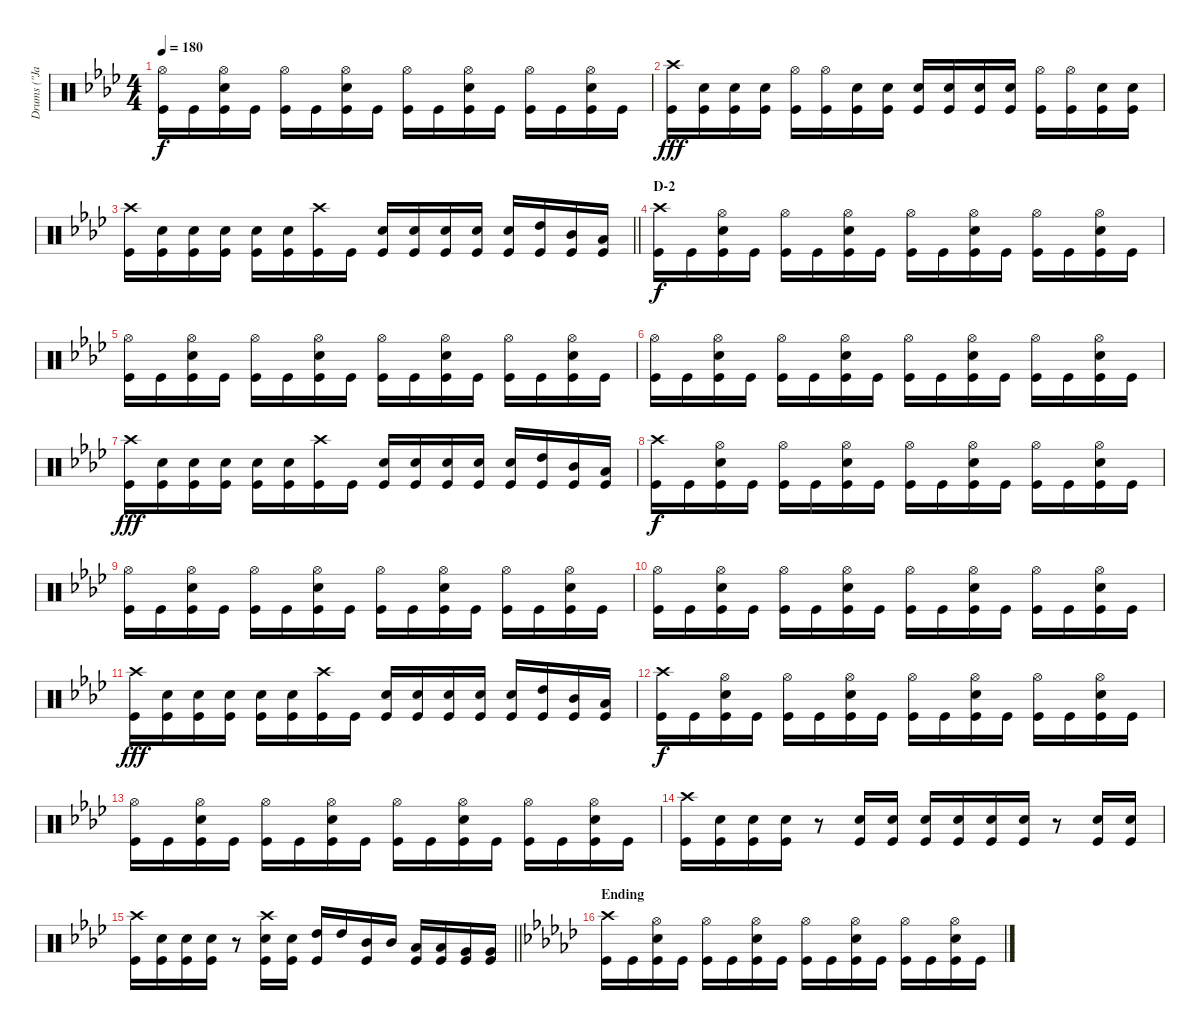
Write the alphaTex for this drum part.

\track ("Drums (\"Jane\")" "Drums (\"Ja") {instrument percussion}
\staff {score}
\articulation defaults
\ts (4 4)
\tempo 180
\clef neutral
\ks ab
("Hi-Hat (open)" "Kick (hit)").16{dy f} "Kick (hit)".16 ("Hi-Hat (open)" "Snare (hit) 2" "Kick (hit)").16 "Kick (hit)".16 ("Hi-Hat (open)" "Kick (hit)").16 "Kick (hit)".16 ("Hi-Hat (open)" "Snare (hit) 2" "Kick (hit)").16 "Kick (hit)".16 ("Hi-Hat (open)" "Kick (hit)").16 "Kick (hit)".16 ("Hi-Hat (open)" "Snare (hit) 2" "Kick (hit)").16 "Kick (hit)".16 ("Hi-Hat (open)" "Kick (hit)").16 "Kick (hit)".16 ("Hi-Hat (open)" "Snare (hit) 2" "Kick (hit)").16 "Kick (hit)".16 |
("Crash high (hit)" "Kick (hit)").16{dy fff} ("Snare (hit) 2" "Kick (hit)").16 ("Snare (hit) 2" "Kick (hit)").16 ("Snare (hit) 2" "Kick (hit)").16 ("Hi-Hat (open)" "Kick (hit)").16 ("Hi-Hat (open)" "Kick (hit)").16 ("Snare (hit) 2" "Kick (hit)").16 ("Snare (hit) 2" "Kick (hit)").16 ("Snare (hit) 2" "Kick (hit)").16 ("Snare (hit) 2" "Kick (hit)").16 ("Snare (hit) 2" "Kick (hit)").16 ("Snare (hit) 2" "Kick (hit)").16 ("Hi-Hat (open)" "Kick (hit)").16 ("Hi-Hat (open)" "Kick (hit)").16 ("Snare (hit) 2" "Kick (hit)").16 ("Snare (hit) 2" "Kick (hit)").16 |
\barLineRight lightlight
("Crash high (hit)" "Kick (hit)").16 ("Snare (hit) 2" "Kick (hit)").16 ("Snare (hit) 2" "Kick (hit)").16 ("Snare (hit) 2" "Kick (hit)").16 ("Snare (hit) 2" "Kick (hit)").16 ("Snare (hit) 2" "Kick (hit)").16 ("Crash high (hit)" "Kick (hit)").16 "Kick (hit)".16 ("Snare (hit) 2" "Kick (hit)").16 ("Snare (hit) 2" "Kick (hit)").16 ("Snare (hit) 2" "Kick (hit)").16 ("Snare (hit) 2" "Kick (hit)").16 ("Snare (hit) 2" "Kick (hit)").16 ("High Tom (hit)" "Kick (hit)").16 ("Mid Tom (hit)" "Kick (hit)").16 ("Low Tom (hit)" "Kick (hit)").16 |
\section ("" "D-2")
("Crash high (hit)" "Kick (hit)").16{dy f} "Kick (hit)".16 ("Hi-Hat (open)" "Snare (hit) 2" "Kick (hit)").16 "Kick (hit)".16 ("Hi-Hat (open)" "Kick (hit)").16 "Kick (hit)".16 ("Hi-Hat (open)" "Snare (hit) 2" "Kick (hit)").16 "Kick (hit)".16 ("Hi-Hat (open)" "Kick (hit)").16 "Kick (hit)".16 ("Hi-Hat (open)" "Snare (hit) 2" "Kick (hit)").16 "Kick (hit)".16 ("Hi-Hat (open)" "Kick (hit)").16 "Kick (hit)".16 ("Hi-Hat (open)" "Snare (hit) 2" "Kick (hit)").16 "Kick (hit)".16 |
("Hi-Hat (open)" "Kick (hit)").16 "Kick (hit)".16 ("Hi-Hat (open)" "Snare (hit) 2" "Kick (hit)").16 "Kick (hit)".16 ("Hi-Hat (open)" "Kick (hit)").16 "Kick (hit)".16 ("Hi-Hat (open)" "Snare (hit) 2" "Kick (hit)").16 "Kick (hit)".16 ("Hi-Hat (open)" "Kick (hit)").16 "Kick (hit)".16 ("Hi-Hat (open)" "Snare (hit) 2" "Kick (hit)").16 "Kick (hit)".16 ("Hi-Hat (open)" "Kick (hit)").16 "Kick (hit)".16 ("Hi-Hat (open)" "Snare (hit) 2" "Kick (hit)").16 "Kick (hit)".16 |
("Hi-Hat (open)" "Kick (hit)").16 "Kick (hit)".16 ("Hi-Hat (open)" "Snare (hit) 2" "Kick (hit)").16 "Kick (hit)".16 ("Hi-Hat (open)" "Kick (hit)").16 "Kick (hit)".16 ("Hi-Hat (open)" "Snare (hit) 2" "Kick (hit)").16 "Kick (hit)".16 ("Hi-Hat (open)" "Kick (hit)").16 "Kick (hit)".16 ("Hi-Hat (open)" "Snare (hit) 2" "Kick (hit)").16 "Kick (hit)".16 ("Hi-Hat (open)" "Kick (hit)").16 "Kick (hit)".16 ("Hi-Hat (open)" "Snare (hit) 2" "Kick (hit)").16 "Kick (hit)".16 |
("Crash high (hit)" "Kick (hit)").16{dy fff} ("Snare (hit) 2" "Kick (hit)").16 ("Snare (hit) 2" "Kick (hit)").16 ("Snare (hit) 2" "Kick (hit)").16 ("Snare (hit) 2" "Kick (hit)").16 ("Snare (hit) 2" "Kick (hit)").16 ("Crash high (hit)" "Kick (hit)").16 "Kick (hit)".16 ("Snare (hit) 2" "Kick (hit)").16 ("Snare (hit) 2" "Kick (hit)").16 ("Snare (hit) 2" "Kick (hit)").16 ("Snare (hit) 2" "Kick (hit)").16 ("Snare (hit) 2" "Kick (hit)").16 ("High Tom (hit)" "Kick (hit)").16 ("Mid Tom (hit)" "Kick (hit)").16 ("Low Tom (hit)" "Kick (hit)").16 |
("Crash high (hit)" "Kick (hit)").16{dy f} "Kick (hit)".16 ("Hi-Hat (open)" "Snare (hit) 2" "Kick (hit)").16 "Kick (hit)".16 ("Hi-Hat (open)" "Kick (hit)").16 "Kick (hit)".16 ("Hi-Hat (open)" "Snare (hit) 2" "Kick (hit)").16 "Kick (hit)".16 ("Hi-Hat (open)" "Kick (hit)").16 "Kick (hit)".16 ("Hi-Hat (open)" "Snare (hit) 2" "Kick (hit)").16 "Kick (hit)".16 ("Hi-Hat (open)" "Kick (hit)").16 "Kick (hit)".16 ("Hi-Hat (open)" "Snare (hit) 2" "Kick (hit)").16 "Kick (hit)".16 |
("Hi-Hat (open)" "Kick (hit)").16 "Kick (hit)".16 ("Hi-Hat (open)" "Snare (hit) 2" "Kick (hit)").16 "Kick (hit)".16 ("Hi-Hat (open)" "Kick (hit)").16 "Kick (hit)".16 ("Hi-Hat (open)" "Snare (hit) 2" "Kick (hit)").16 "Kick (hit)".16 ("Hi-Hat (open)" "Kick (hit)").16 "Kick (hit)".16 ("Hi-Hat (open)" "Snare (hit) 2" "Kick (hit)").16 "Kick (hit)".16 ("Hi-Hat (open)" "Kick (hit)").16 "Kick (hit)".16 ("Hi-Hat (open)" "Snare (hit) 2" "Kick (hit)").16 "Kick (hit)".16 |
("Hi-Hat (open)" "Kick (hit)").16 "Kick (hit)".16 ("Hi-Hat (open)" "Snare (hit) 2" "Kick (hit)").16 "Kick (hit)".16 ("Hi-Hat (open)" "Kick (hit)").16 "Kick (hit)".16 ("Hi-Hat (open)" "Snare (hit) 2" "Kick (hit)").16 "Kick (hit)".16 ("Hi-Hat (open)" "Kick (hit)").16 "Kick (hit)".16 ("Hi-Hat (open)" "Snare (hit) 2" "Kick (hit)").16 "Kick (hit)".16 ("Hi-Hat (open)" "Kick (hit)").16 "Kick (hit)".16 ("Hi-Hat (open)" "Snare (hit) 2" "Kick (hit)").16 "Kick (hit)".16 |
("Crash high (hit)" "Kick (hit)").16{dy fff} ("Snare (hit) 2" "Kick (hit)").16 ("Snare (hit) 2" "Kick (hit)").16 ("Snare (hit) 2" "Kick (hit)").16 ("Snare (hit) 2" "Kick (hit)").16 ("Snare (hit) 2" "Kick (hit)").16 ("Crash high (hit)" "Kick (hit)").16 "Kick (hit)".16 ("Snare (hit) 2" "Kick (hit)").16 ("Snare (hit) 2" "Kick (hit)").16 ("Snare (hit) 2" "Kick (hit)").16 ("Snare (hit) 2" "Kick (hit)").16 ("Snare (hit) 2" "Kick (hit)").16 ("High Tom (hit)" "Kick (hit)").16 ("Mid Tom (hit)" "Kick (hit)").16 ("Low Tom (hit)" "Kick (hit)").16 |
("Crash high (hit)" "Kick (hit)").16{dy f} "Kick (hit)".16 ("Hi-Hat (open)" "Snare (hit) 2" "Kick (hit)").16 "Kick (hit)".16 ("Hi-Hat (open)" "Kick (hit)").16 "Kick (hit)".16 ("Hi-Hat (open)" "Snare (hit) 2" "Kick (hit)").16 "Kick (hit)".16 ("Hi-Hat (open)" "Kick (hit)").16 "Kick (hit)".16 ("Hi-Hat (open)" "Snare (hit) 2" "Kick (hit)").16 "Kick (hit)".16 ("Hi-Hat (open)" "Kick (hit)").16 "Kick (hit)".16 ("Hi-Hat (open)" "Snare (hit) 2" "Kick (hit)").16 "Kick (hit)".16 |
("Hi-Hat (open)" "Kick (hit)").16 "Kick (hit)".16 ("Hi-Hat (open)" "Snare (hit) 2" "Kick (hit)").16 "Kick (hit)".16 ("Hi-Hat (open)" "Kick (hit)").16 "Kick (hit)".16 ("Hi-Hat (open)" "Snare (hit) 2" "Kick (hit)").16 "Kick (hit)".16 ("Hi-Hat (open)" "Kick (hit)").16 "Kick (hit)".16 ("Hi-Hat (open)" "Snare (hit) 2" "Kick (hit)").16 "Kick (hit)".16 ("Hi-Hat (open)" "Kick (hit)").16 "Kick (hit)".16 ("Hi-Hat (open)" "Snare (hit) 2" "Kick (hit)").16 "Kick (hit)".16 |
("Crash high (hit)" "Kick (hit)").16 ("Snare (hit) 2" "Kick (hit)").16 ("Snare (hit) 2" "Kick (hit)").16 ("Snare (hit) 2" "Kick (hit)").16 r.8 ("Snare (hit) 2" "Kick (hit)").16 ("Snare (hit) 2" "Kick (hit)").16 ("Snare (hit) 2" "Kick (hit)").16 ("Snare (hit) 2" "Kick (hit)").16 ("Snare (hit) 2" "Kick (hit)").16 ("Snare (hit) 2" "Kick (hit)").16 r.8 ("Snare (hit) 2" "Kick (hit)").16 ("Snare (hit) 2" "Kick (hit)").16 |
\barLineRight lightlight
("Crash high (hit)" "Kick (hit)").16 ("Snare (hit) 2" "Kick (hit)").16 ("Snare (hit) 2" "Kick (hit)").16 ("Snare (hit) 2" "Kick (hit)").16 r.8 ("Crash high (hit)" "Snare (hit) 2" "Kick (hit)").16 ("Snare (hit) 2" "Kick (hit)").16 ("High Tom (hit)" "Kick (hit)").16 "High Tom (hit)".16 ("Mid Tom (hit)" "Kick (hit)").16 "Mid Tom (hit)".16 ("Low Tom (hit)" "Kick (hit)").16 ("Low Tom (hit)" "Kick (hit)").16 ("Very Low Tom (hit)" "Kick (hit)").16 ("Very Low Tom (hit)" "Kick (hit)").16 |
\section ("" "Ending")
\ks gb
("Crash high (hit)" "Kick (hit)").16 "Kick (hit)".16 ("Hi-Hat (open)" "Snare (hit) 2" "Kick (hit)").16 "Kick (hit)".16 ("Hi-Hat (open)" "Kick (hit)").16 "Kick (hit)".16 ("Hi-Hat (open)" "Snare (hit) 2" "Kick (hit)").16 "Kick (hit)".16 ("Hi-Hat (open)" "Kick (hit)").16 "Kick (hit)".16 ("Hi-Hat (open)" "Snare (hit) 2" "Kick (hit)").16 "Kick (hit)".16 ("Hi-Hat (open)" "Kick (hit)").16 "Kick (hit)".16 ("Hi-Hat (open)" "Snare (hit) 2" "Kick (hit)").16 "Kick (hit)".16
